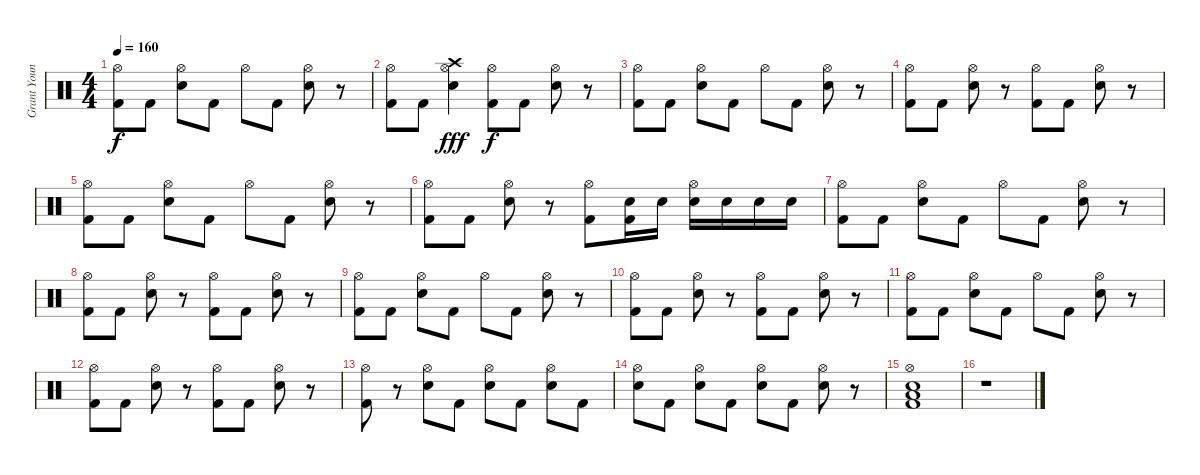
\track ("Grant Young" "Grant Youn") {instrument percussion}
\staff {score}
\articulation defaults
\ts (4 4)
\tempo 160
\clef neutral
\ks c
("Hi-Hat (open)" "Kick (hit) 2").8{dy f} "Kick (hit) 2".8 ("Hi-Hat (open)" "Snare (hit) 2").8 "Kick (hit) 2".8 "Hi-Hat (open)".8 "Kick (hit) 2".8 ("Hi-Hat (open)" "Snare (hit) 2").8 r.8 |
("Hi-Hat (open)" "Kick (hit) 2").8 "Kick (hit) 2".8 ("Crash high (hit)" "Hi-Hat (open)" "Snare (hit) 2").4{dy fff} ("Kick (hit) 2" "Hi-Hat (open)").8{dy f} "Kick (hit) 2".8 ("Hi-Hat (open)" "Snare (hit) 2").8 r.8 |
("Hi-Hat (open)" "Kick (hit) 2").8 "Kick (hit) 2".8 ("Hi-Hat (open)" "Snare (hit) 2").8 "Kick (hit) 2".8 "Hi-Hat (open)".8 "Kick (hit) 2".8 ("Hi-Hat (open)" "Snare (hit) 2").8 r.8 |
("Hi-Hat (open)" "Kick (hit) 2").8 "Kick (hit) 2".8 ("Hi-Hat (open)" "Snare (hit) 2").8 r.8 ("Kick (hit) 2" "Hi-Hat (open)").8 "Kick (hit) 2".8 ("Hi-Hat (open)" "Snare (hit) 2").8 r.8 |
("Hi-Hat (open)" "Kick (hit) 2").8 "Kick (hit) 2".8 ("Hi-Hat (open)" "Snare (hit) 2").8 "Kick (hit) 2".8 "Hi-Hat (open)".8 "Kick (hit) 2".8 ("Hi-Hat (open)" "Snare (hit) 2").8 r.8 |
("Hi-Hat (open)" "Kick (hit) 2").8 "Kick (hit) 2".8 ("Hi-Hat (open)" "Snare (hit) 2").8 r.8 ("Kick (hit) 2" "Hi-Hat (open)").8 ("Snare (hit) 2" "Kick (hit) 2").16 "Snare (hit) 2".16 ("Hi-Hat (open)" "Snare (hit) 2").16 "Snare (hit) 2".16 "Snare (hit) 2".16 "Snare (hit) 2".16 |
("Hi-Hat (open)" "Kick (hit) 2").8 "Kick (hit) 2".8 ("Hi-Hat (open)" "Snare (hit) 2").8 "Kick (hit) 2".8 "Hi-Hat (open)".8 "Kick (hit) 2".8 ("Hi-Hat (open)" "Snare (hit) 2").8 r.8 |
("Hi-Hat (open)" "Kick (hit) 2").8 "Kick (hit) 2".8 ("Hi-Hat (open)" "Snare (hit) 2").8 r.8 ("Kick (hit) 2" "Hi-Hat (open)").8 "Kick (hit) 2".8 ("Hi-Hat (open)" "Snare (hit) 2").8 r.8 |
("Hi-Hat (open)" "Kick (hit) 2").8 "Kick (hit) 2".8 ("Hi-Hat (open)" "Snare (hit) 2").8 "Kick (hit) 2".8 "Hi-Hat (open)".8 "Kick (hit) 2".8 ("Hi-Hat (open)" "Snare (hit) 2").8 r.8 |
("Hi-Hat (open)" "Kick (hit) 2").8 "Kick (hit) 2".8 ("Hi-Hat (open)" "Snare (hit) 2").8 r.8 ("Kick (hit) 2" "Hi-Hat (open)").8 "Kick (hit) 2".8 ("Hi-Hat (open)" "Snare (hit) 2").8 r.8 |
("Hi-Hat (open)" "Kick (hit) 2").8 "Kick (hit) 2".8 ("Hi-Hat (open)" "Snare (hit) 2").8 "Kick (hit) 2".8 "Hi-Hat (open)".8 "Kick (hit) 2".8 ("Hi-Hat (open)" "Snare (hit) 2").8 r.8 |
("Hi-Hat (open)" "Kick (hit) 2").8 "Kick (hit) 2".8 ("Hi-Hat (open)" "Snare (hit) 2").8 r.8 ("Kick (hit) 2" "Hi-Hat (open)").8 "Kick (hit) 2".8 ("Hi-Hat (open)" "Snare (hit) 2").8 r.8 |
("Hi-Hat (open)" "Kick (hit) 2").8 r.8 ("Snare (hit) 2" "Hi-Hat (open)").8 "Kick (hit) 2".8 ("Snare (hit) 2" "Hi-Hat (open)").8 "Kick (hit) 2".8 ("Snare (hit) 2" "Hi-Hat (open)").8 "Kick (hit) 2".8 |
("Snare (hit) 2" "Hi-Hat (open)").8 "Kick (hit) 2".8 ("Snare (hit) 2" "Hi-Hat (open)").8 "Kick (hit) 2".8 ("Snare (hit) 2" "Hi-Hat (open)").8 "Kick (hit) 2".8 ("Snare (hit) 2" "Hi-Hat (open)").8 r.8 |
("Snare (hit) 2" "Hi-Hat (open)" "Kick (hit) 2" "Low Tom (hit)").1 |
r.1
